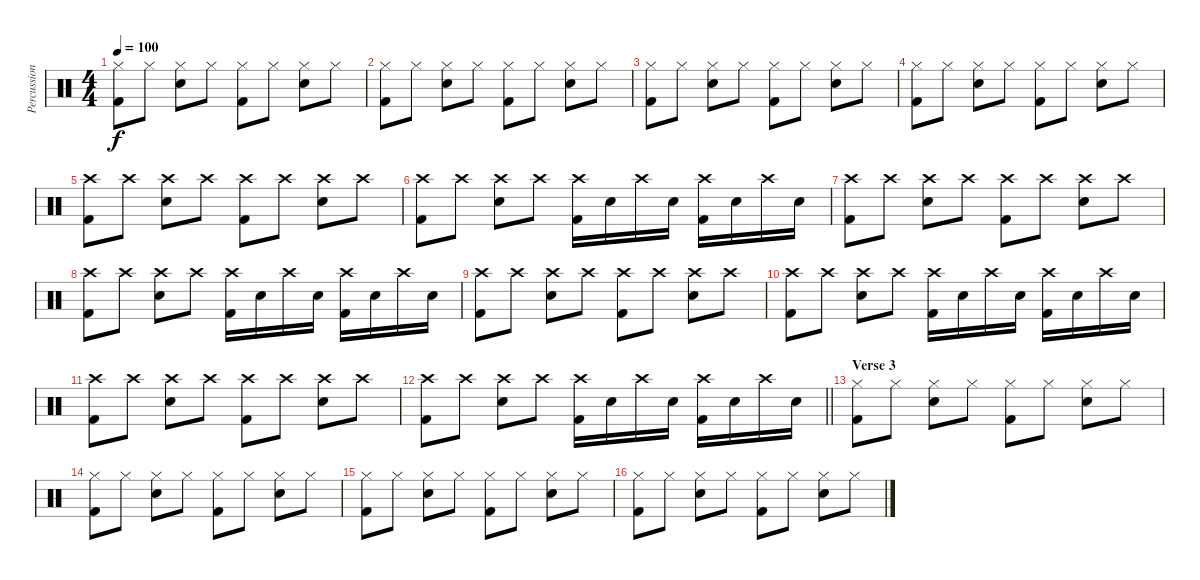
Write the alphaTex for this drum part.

\track ("Percussion" "Percussion") {instrument percussion}
\staff {score}
\articulation defaults
\ts (4 4)
\tempo 100
\clef neutral
\ks c
("Hi-Hat (closed)" "Kick (hit) 2").8{dy f} "Hi-Hat (closed)".8 ("Hi-Hat (closed)" "Electric Snare (hit)").8 "Hi-Hat (closed)".8 ("Hi-Hat (closed)" "Kick (hit) 2").8 "Hi-Hat (closed)".8 ("Hi-Hat (closed)" "Electric Snare (hit)").8 "Hi-Hat (closed)".8 |
("Hi-Hat (closed)" "Kick (hit) 2").8 "Hi-Hat (closed)".8 ("Hi-Hat (closed)" "Electric Snare (hit)").8 "Hi-Hat (closed)".8 ("Hi-Hat (closed)" "Kick (hit) 2").8 "Hi-Hat (closed)".8 ("Hi-Hat (closed)" "Electric Snare (hit)").8 "Hi-Hat (closed)".8 |
("Hi-Hat (closed)" "Kick (hit) 2").8 "Hi-Hat (closed)".8 ("Hi-Hat (closed)" "Electric Snare (hit)").8 "Hi-Hat (closed)".8 ("Hi-Hat (closed)" "Kick (hit) 2").8 "Hi-Hat (closed)".8 ("Hi-Hat (closed)" "Electric Snare (hit)").8 "Hi-Hat (closed)".8 |
("Hi-Hat (closed)" "Kick (hit) 2").8 "Hi-Hat (closed)".8 ("Hi-Hat (closed)" "Electric Snare (hit)").8 "Hi-Hat (closed)".8 ("Hi-Hat (closed)" "Kick (hit) 2").8 "Hi-Hat (closed)".8 ("Hi-Hat (closed)" "Electric Snare (hit)").8 "Hi-Hat (closed)".8 |
("Crash high (hit)" "Kick (hit) 2").8 "Crash high (hit)".8 ("Crash high (hit)" "Electric Snare (hit)").8 "Crash high (hit)".8 ("Crash high (hit)" "Kick (hit) 2").8 "Crash high (hit)".8 ("Crash high (hit)" "Electric Snare (hit)").8 "Crash high (hit)".8 |
("Crash high (hit)" "Kick (hit) 2").8 "Crash high (hit)".8 ("Crash high (hit)" "Electric Snare (hit)").8 "Crash high (hit)".8 ("Crash high (hit)" "Kick (hit) 2").16 "Electric Snare (hit)".16 "Crash high (hit)".16 "Electric Snare (hit)".16 ("Crash high (hit)" "Kick (hit) 2").16 "Electric Snare (hit)".16 "Crash high (hit)".16 "Electric Snare (hit)".16 |
("Crash high (hit)" "Kick (hit) 2").8 "Crash high (hit)".8 ("Crash high (hit)" "Electric Snare (hit)").8 "Crash high (hit)".8 ("Crash high (hit)" "Kick (hit) 2").8 "Crash high (hit)".8 ("Crash high (hit)" "Electric Snare (hit)").8 "Crash high (hit)".8 |
("Crash high (hit)" "Kick (hit) 2").8 "Crash high (hit)".8 ("Crash high (hit)" "Electric Snare (hit)").8 "Crash high (hit)".8 ("Crash high (hit)" "Kick (hit) 2").16 "Electric Snare (hit)".16 "Crash high (hit)".16 "Electric Snare (hit)".16 ("Crash high (hit)" "Kick (hit) 2").16 "Electric Snare (hit)".16 "Crash high (hit)".16 "Electric Snare (hit)".16 |
("Crash high (hit)" "Kick (hit) 2").8 "Crash high (hit)".8 ("Crash high (hit)" "Electric Snare (hit)").8 "Crash high (hit)".8 ("Crash high (hit)" "Kick (hit) 2").8 "Crash high (hit)".8 ("Crash high (hit)" "Electric Snare (hit)").8 "Crash high (hit)".8 |
("Crash high (hit)" "Kick (hit) 2").8 "Crash high (hit)".8 ("Crash high (hit)" "Electric Snare (hit)").8 "Crash high (hit)".8 ("Crash high (hit)" "Kick (hit) 2").16 "Electric Snare (hit)".16 "Crash high (hit)".16 "Electric Snare (hit)".16 ("Crash high (hit)" "Kick (hit) 2").16 "Electric Snare (hit)".16 "Crash high (hit)".16 "Electric Snare (hit)".16 |
("Crash high (hit)" "Kick (hit) 2").8 "Crash high (hit)".8 ("Crash high (hit)" "Electric Snare (hit)").8 "Crash high (hit)".8 ("Crash high (hit)" "Kick (hit) 2").8 "Crash high (hit)".8 ("Crash high (hit)" "Electric Snare (hit)").8 "Crash high (hit)".8 |
\barLineRight lightlight
("Crash high (hit)" "Kick (hit) 2").8 "Crash high (hit)".8 ("Crash high (hit)" "Electric Snare (hit)").8 "Crash high (hit)".8 ("Crash high (hit)" "Kick (hit) 2").16 "Electric Snare (hit)".16 "Crash high (hit)".16 "Electric Snare (hit)".16 ("Crash high (hit)" "Kick (hit) 2").16 "Electric Snare (hit)".16 "Crash high (hit)".16 "Electric Snare (hit)".16 |
\section ("" "Verse 3")
("Hi-Hat (closed)" "Kick (hit) 2").8 "Hi-Hat (closed)".8 ("Hi-Hat (closed)" "Electric Snare (hit)").8 "Hi-Hat (closed)".8 ("Hi-Hat (closed)" "Kick (hit) 2").8 "Hi-Hat (closed)".8 ("Hi-Hat (closed)" "Electric Snare (hit)").8 "Hi-Hat (closed)".8 |
("Hi-Hat (closed)" "Kick (hit) 2").8 "Hi-Hat (closed)".8 ("Hi-Hat (closed)" "Electric Snare (hit)").8 "Hi-Hat (closed)".8 ("Hi-Hat (closed)" "Kick (hit) 2").8 "Hi-Hat (closed)".8 ("Hi-Hat (closed)" "Electric Snare (hit)").8 "Hi-Hat (closed)".8 |
("Hi-Hat (closed)" "Kick (hit) 2").8 "Hi-Hat (closed)".8 ("Hi-Hat (closed)" "Electric Snare (hit)").8 "Hi-Hat (closed)".8 ("Hi-Hat (closed)" "Kick (hit) 2").8 "Hi-Hat (closed)".8 ("Hi-Hat (closed)" "Electric Snare (hit)").8 "Hi-Hat (closed)".8 |
("Hi-Hat (closed)" "Kick (hit) 2").8 "Hi-Hat (closed)".8 ("Hi-Hat (closed)" "Electric Snare (hit)").8 "Hi-Hat (closed)".8 ("Hi-Hat (closed)" "Kick (hit) 2").8 "Hi-Hat (closed)".8 ("Hi-Hat (closed)" "Electric Snare (hit)").8 "Hi-Hat (closed)".8
